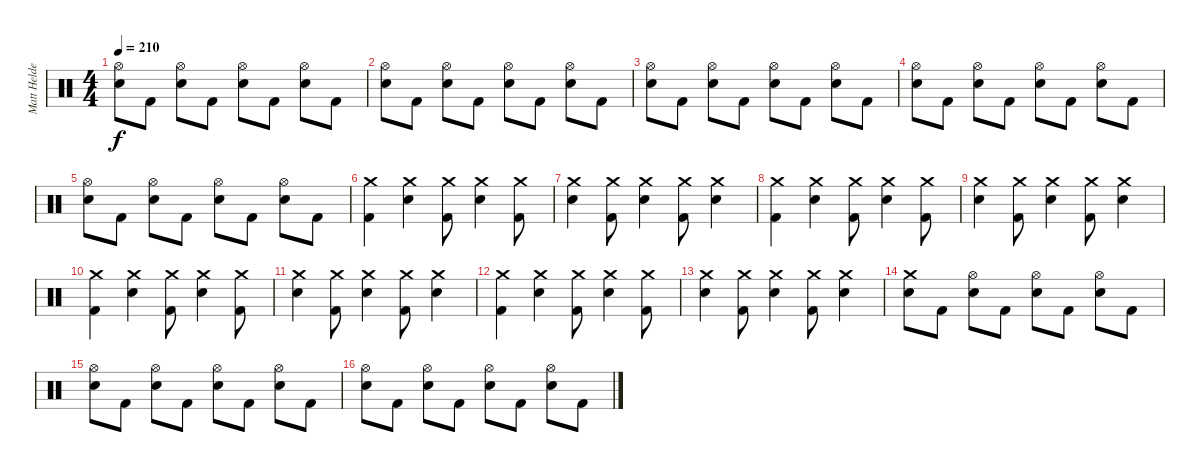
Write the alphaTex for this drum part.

\track ("Matt Helders" "Matt Helde") {instrument percussion}
\staff {score}
\articulation defaults
\ts (4 4)
\tempo 210
\clef neutral
\ks c
("Hi-Hat (open)" "Snare (hit) 2").8{dy f} "Kick (hit) 2".8 ("Hi-Hat (open)" "Snare (hit) 2").8 "Kick (hit) 2".8 ("Hi-Hat (open)" "Snare (hit) 2").8 "Kick (hit) 2".8 ("Hi-Hat (open)" "Snare (hit) 2").8 "Kick (hit) 2".8 |
("Hi-Hat (open)" "Snare (hit) 2").8 "Kick (hit) 2".8 ("Hi-Hat (open)" "Snare (hit) 2").8 "Kick (hit) 2".8 ("Hi-Hat (open)" "Snare (hit) 2").8 "Kick (hit) 2".8 ("Hi-Hat (open)" "Snare (hit) 2").8 "Kick (hit) 2".8 |
("Hi-Hat (open)" "Snare (hit) 2").8 "Kick (hit) 2".8 ("Hi-Hat (open)" "Snare (hit) 2").8 "Kick (hit) 2".8 ("Hi-Hat (open)" "Snare (hit) 2").8 "Kick (hit) 2".8 ("Hi-Hat (open)" "Snare (hit) 2").8 "Kick (hit) 2".8 |
("Hi-Hat (open)" "Snare (hit) 2").8 "Kick (hit) 2".8 ("Hi-Hat (open)" "Snare (hit) 2").8 "Kick (hit) 2".8 ("Hi-Hat (open)" "Snare (hit) 2").8 "Kick (hit) 2".8 ("Hi-Hat (open)" "Snare (hit) 2").8 "Kick (hit) 2".8 |
("Hi-Hat (open)" "Snare (hit) 2").8 "Kick (hit) 2".8 ("Hi-Hat (open)" "Snare (hit) 2").8 "Kick (hit) 2".8 ("Hi-Hat (open)" "Snare (hit) 2").8 "Kick (hit) 2".8 ("Hi-Hat (open)" "Snare (hit) 2").8 "Kick (hit) 2".8 |
("Crash medium (hit)" "Kick (hit) 2").4 ("Crash medium (hit)" "Snare (hit) 2").4 ("Crash medium (hit)" "Kick (hit) 2").8 ("Crash medium (hit)" "Snare (hit) 2").4 ("Crash medium (hit)" "Kick (hit) 2").8 |
("Crash medium (hit)" "Snare (hit) 2").4 ("Crash medium (hit)" "Kick (hit) 2").8 ("Crash medium (hit)" "Snare (hit) 2").4 ("Crash medium (hit)" "Kick (hit) 2").8 ("Crash medium (hit)" "Snare (hit) 2").4 |
("Crash medium (hit)" "Kick (hit) 2").4 ("Crash medium (hit)" "Snare (hit) 2").4 ("Crash medium (hit)" "Kick (hit) 2").8 ("Crash medium (hit)" "Snare (hit) 2").4 ("Crash medium (hit)" "Kick (hit) 2").8 |
("Crash medium (hit)" "Snare (hit) 2").4 ("Crash medium (hit)" "Kick (hit) 2").8 ("Crash medium (hit)" "Snare (hit) 2").4 ("Crash medium (hit)" "Kick (hit) 2").8 ("Crash medium (hit)" "Snare (hit) 2").4 |
("Crash medium (hit)" "Kick (hit) 2").4 ("Crash medium (hit)" "Snare (hit) 2").4 ("Crash medium (hit)" "Kick (hit) 2").8 ("Crash medium (hit)" "Snare (hit) 2").4 ("Crash medium (hit)" "Kick (hit) 2").8 |
("Crash medium (hit)" "Snare (hit) 2").4 ("Crash medium (hit)" "Kick (hit) 2").8 ("Crash medium (hit)" "Snare (hit) 2").4 ("Crash medium (hit)" "Kick (hit) 2").8 ("Crash medium (hit)" "Snare (hit) 2").4 |
("Crash medium (hit)" "Kick (hit) 2").4 ("Crash medium (hit)" "Snare (hit) 2").4 ("Crash medium (hit)" "Kick (hit) 2").8 ("Crash medium (hit)" "Snare (hit) 2").4 ("Crash medium (hit)" "Kick (hit) 2").8 |
("Crash medium (hit)" "Snare (hit) 2").4 ("Crash medium (hit)" "Kick (hit) 2").8 ("Crash medium (hit)" "Snare (hit) 2").4 ("Crash medium (hit)" "Kick (hit) 2").8 ("Crash medium (hit)" "Snare (hit) 2").4 |
("Crash medium (hit)" "Snare (hit) 2").8 "Kick (hit) 2".8 ("Hi-Hat (open)" "Snare (hit) 2").8 "Kick (hit) 2".8 ("Hi-Hat (open)" "Snare (hit) 2").8 "Kick (hit) 2".8 ("Hi-Hat (open)" "Snare (hit) 2").8 "Kick (hit) 2".8 |
("Hi-Hat (open)" "Snare (hit) 2").8 "Kick (hit) 2".8 ("Hi-Hat (open)" "Snare (hit) 2").8 "Kick (hit) 2".8 ("Hi-Hat (open)" "Snare (hit) 2").8 "Kick (hit) 2".8 ("Hi-Hat (open)" "Snare (hit) 2").8 "Kick (hit) 2".8 |
("Hi-Hat (open)" "Snare (hit) 2").8 "Kick (hit) 2".8 ("Hi-Hat (open)" "Snare (hit) 2").8 "Kick (hit) 2".8 ("Hi-Hat (open)" "Snare (hit) 2").8 "Kick (hit) 2".8 ("Hi-Hat (open)" "Snare (hit) 2").8 "Kick (hit) 2".8
